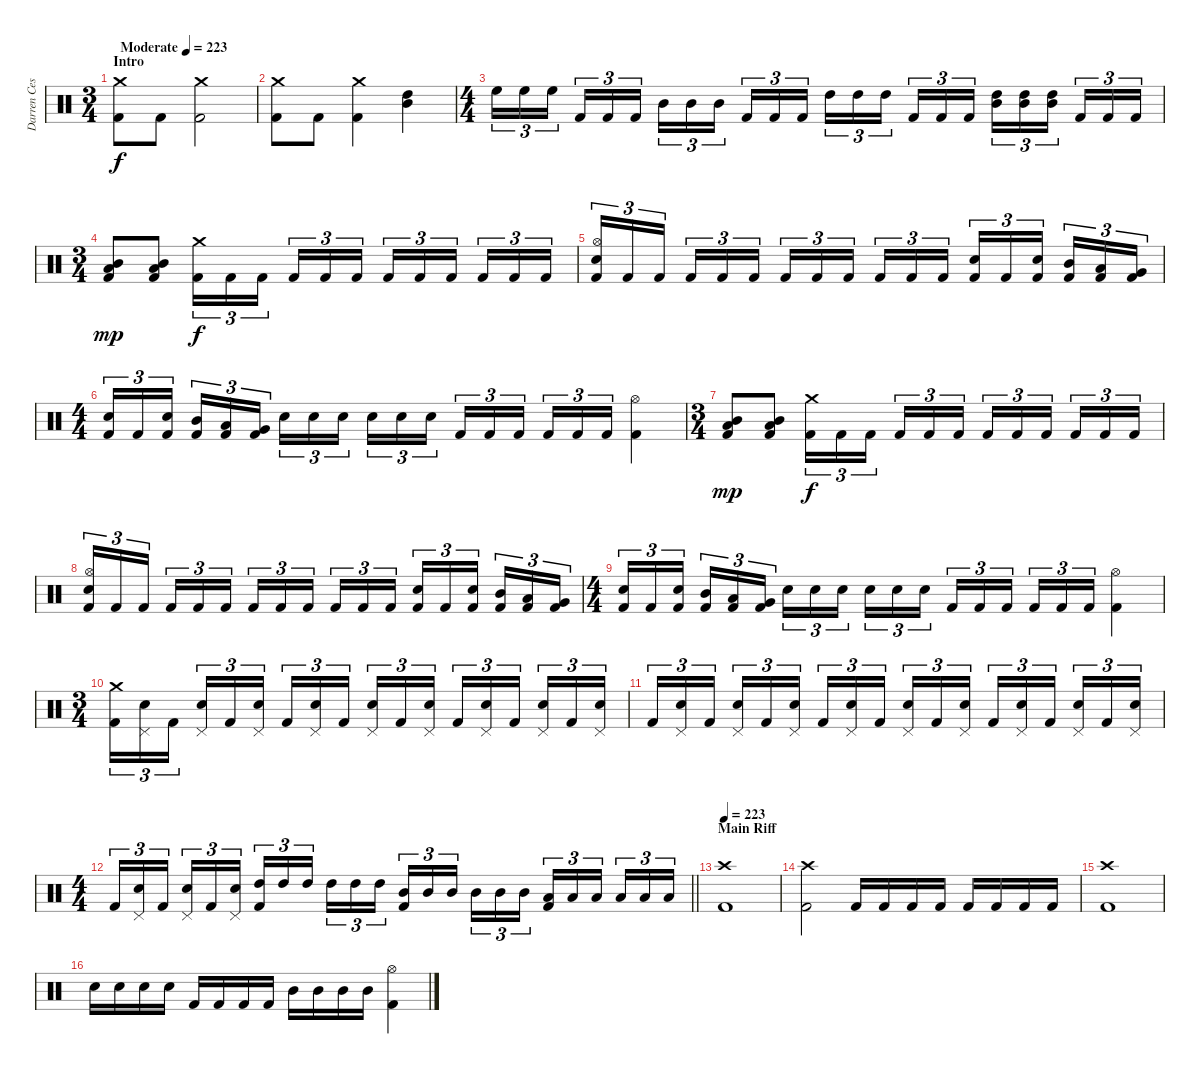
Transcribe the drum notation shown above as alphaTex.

\track ("Darren Cesca" "Darren Ces") {instrument percussion}
\staff {score}
\articulation defaults
\ts (3 4)
\section ("" "Intro")
\tempo (223 "Moderate")
\tempo 150
\tempo (223 "Moderate")
\clef neutral
\ks c
("Crash medium (hit)" "Kick (hit) 2").8{dy f} "Kick (hit) 2".8 ("Crash medium (hit)" "Kick (hit) 2").2 |
("Crash medium (hit)" "Kick (hit) 2").8 "Kick (hit) 2".8 ("Crash medium (hit)" "Kick (hit) 2").4 ("High Tom (hit)" "Mid Tom (hit)").4 |
\ts (4 4)
"High Floor Tom (hit)".16{tu (3 2)} "High Floor Tom (hit)".16{tu (3 2)} "High Floor Tom (hit)".16{tu (3 2) beam splitsecondary} "Kick (hit) 2".16{tu (3 2)} "Kick (hit) 2".16{tu (3 2)} "Kick (hit) 2".16{tu (3 2)} "Mid Tom (hit)".16{tu (3 2)} "Mid Tom (hit)".16{tu (3 2)} "Mid Tom (hit)".16{tu (3 2) beam splitsecondary} "Kick (hit) 2".16{tu (3 2)} "Kick (hit) 2".16{tu (3 2)} "Kick (hit) 2".16{tu (3 2)} "High Tom (hit)".16{tu (3 2)} "High Tom (hit)".16{tu (3 2)} "High Tom (hit)".16{tu (3 2) beam splitsecondary} "Kick (hit) 2".16{tu (3 2)} "Kick (hit) 2".16{tu (3 2)} "Kick (hit) 2".16{tu (3 2)} ("High Tom (hit)" "Mid Tom (hit)").16{tu (3 2)} ("High Tom (hit)" "Mid Tom (hit)").16{tu (3 2)} ("High Tom (hit)" "Mid Tom (hit)").16{tu (3 2) beam splitsecondary} "Kick (hit) 2".16{tu (3 2)} "Kick (hit) 2".16{tu (3 2)} "Kick (hit) 2".16{tu (3 2)} |
\ts (3 4)
("Low Tom (hit)" "Mid Tom (hit)" "Kick (hit) 2").8{dy mp} ("Low Tom (hit)" "Mid Tom (hit)" "Kick (hit) 2").8 ("Crash medium (hit)" "Kick (hit) 2").16{tu (3 2) dy f} "Kick (hit) 2".16{tu (3 2)} "Kick (hit) 2".16{tu (3 2) beam splitsecondary} "Kick (hit) 2".16{tu (3 2)} "Kick (hit) 2".16{tu (3 2)} "Kick (hit) 2".16{tu (3 2)} "Kick (hit) 2".16{tu (3 2)} "Kick (hit) 2".16{tu (3 2)} "Kick (hit) 2".16{tu (3 2) beam splitsecondary} "Kick (hit) 2".16{tu (3 2)} "Kick (hit) 2".16{tu (3 2)} "Kick (hit) 2".16{tu (3 2)} |
("Hi-Hat (open)" "Electric Snare (hit)" "Kick (hit) 2").16{tu (3 2)} "Kick (hit) 2".16{tu (3 2)} "Kick (hit) 2".16{tu (3 2) beam splitsecondary} "Kick (hit) 2".16{tu (3 2)} "Kick (hit) 2".16{tu (3 2)} "Kick (hit) 2".16{tu (3 2)} "Kick (hit) 2".16{tu (3 2)} "Kick (hit) 2".16{tu (3 2)} "Kick (hit) 2".16{tu (3 2) beam splitsecondary} "Kick (hit) 2".16{tu (3 2)} "Kick (hit) 2".16{tu (3 2)} "Kick (hit) 2".16{tu (3 2)} ("Electric Snare (hit)" "Kick (hit) 2").16{tu (3 2)} "Kick (hit) 2".16{tu (3 2)} ("Electric Snare (hit)" "Kick (hit) 2").16{tu (3 2) beam splitsecondary} ("Mid Tom (hit)" "Kick (hit) 2").16{tu (3 2)} ("Low Tom (hit)" "Kick (hit) 2").16{tu (3 2)} ("Very Low Tom (hit)" "Kick (hit) 2").16{tu (3 2)} |
\ts (4 4)
("Electric Snare (hit)" "Kick (hit) 2").16{tu (3 2)} "Kick (hit) 2".16{tu (3 2)} ("Electric Snare (hit)" "Kick (hit) 2").16{tu (3 2) beam splitsecondary} ("Mid Tom (hit)" "Kick (hit) 2").16{tu (3 2)} ("Low Tom (hit)" "Kick (hit) 2").16{tu (3 2)} ("Very Low Tom (hit)" "Kick (hit) 2").16{tu (3 2)} "Electric Snare (hit)".16{tu (3 2)} "Electric Snare (hit)".16{tu (3 2)} "Electric Snare (hit)".16{tu (3 2) beam splitsecondary} "Electric Snare (hit)".16{tu (3 2)} "Electric Snare (hit)".16{tu (3 2)} "Electric Snare (hit)".16{tu (3 2)} "Kick (hit) 2".16{tu (3 2)} "Kick (hit) 2".16{tu (3 2)} "Kick (hit) 2".16{tu (3 2) beam splitsecondary} "Kick (hit) 2".16{tu (3 2)} "Kick (hit) 2".16{tu (3 2)} "Kick (hit) 2".16{tu (3 2)} ("Hi-Hat (open)" "Kick (hit) 2").4 |
\ts (3 4)
("Low Tom (hit)" "Mid Tom (hit)" "Kick (hit) 2").8{dy mp} ("Low Tom (hit)" "Mid Tom (hit)" "Kick (hit) 2").8 ("Crash medium (hit)" "Kick (hit) 2").16{tu (3 2) dy f} "Kick (hit) 2".16{tu (3 2)} "Kick (hit) 2".16{tu (3 2) beam splitsecondary} "Kick (hit) 2".16{tu (3 2)} "Kick (hit) 2".16{tu (3 2)} "Kick (hit) 2".16{tu (3 2)} "Kick (hit) 2".16{tu (3 2)} "Kick (hit) 2".16{tu (3 2)} "Kick (hit) 2".16{tu (3 2) beam splitsecondary} "Kick (hit) 2".16{tu (3 2)} "Kick (hit) 2".16{tu (3 2)} "Kick (hit) 2".16{tu (3 2)} |
("Hi-Hat (open)" "Electric Snare (hit)" "Kick (hit) 2").16{tu (3 2)} "Kick (hit) 2".16{tu (3 2)} "Kick (hit) 2".16{tu (3 2) beam splitsecondary} "Kick (hit) 2".16{tu (3 2)} "Kick (hit) 2".16{tu (3 2)} "Kick (hit) 2".16{tu (3 2)} "Kick (hit) 2".16{tu (3 2)} "Kick (hit) 2".16{tu (3 2)} "Kick (hit) 2".16{tu (3 2) beam splitsecondary} "Kick (hit) 2".16{tu (3 2)} "Kick (hit) 2".16{tu (3 2)} "Kick (hit) 2".16{tu (3 2)} ("Electric Snare (hit)" "Kick (hit) 2").16{tu (3 2)} "Kick (hit) 2".16{tu (3 2)} ("Electric Snare (hit)" "Kick (hit) 2").16{tu (3 2) beam splitsecondary} ("Mid Tom (hit)" "Kick (hit) 2").16{tu (3 2)} ("Low Tom (hit)" "Kick (hit) 2").16{tu (3 2)} ("Very Low Tom (hit)" "Kick (hit) 2").16{tu (3 2)} |
\ts (4 4)
("Electric Snare (hit)" "Kick (hit) 2").16{tu (3 2)} "Kick (hit) 2".16{tu (3 2)} ("Electric Snare (hit)" "Kick (hit) 2").16{tu (3 2) beam splitsecondary} ("Mid Tom (hit)" "Kick (hit) 2").16{tu (3 2)} ("Low Tom (hit)" "Kick (hit) 2").16{tu (3 2)} ("Very Low Tom (hit)" "Kick (hit) 2").16{tu (3 2)} "Electric Snare (hit)".16{tu (3 2)} "Electric Snare (hit)".16{tu (3 2)} "Electric Snare (hit)".16{tu (3 2) beam splitsecondary} "Electric Snare (hit)".16{tu (3 2)} "Electric Snare (hit)".16{tu (3 2)} "Electric Snare (hit)".16{tu (3 2)} "Kick (hit) 2".16{tu (3 2)} "Kick (hit) 2".16{tu (3 2)} "Kick (hit) 2".16{tu (3 2) beam splitsecondary} "Kick (hit) 2".16{tu (3 2)} "Kick (hit) 2".16{tu (3 2)} "Kick (hit) 2".16{tu (3 2)} ("Hi-Hat (open)" "Kick (hit) 2").4 |
\ts (3 4)
("Crash medium (hit)" "Kick (hit) 2").16{tu (3 2)} ("Pedal Hi-Hat (hit)" "Electric Snare (hit)").16{tu (3 2)} "Kick (hit) 2".16{tu (3 2) beam splitsecondary} ("Pedal Hi-Hat (hit)" "Electric Snare (hit)").16{tu (3 2)} "Kick (hit) 2".16{tu (3 2)} ("Pedal Hi-Hat (hit)" "Electric Snare (hit)").16{tu (3 2)} "Kick (hit) 2".16{tu (3 2)} ("Pedal Hi-Hat (hit)" "Electric Snare (hit)").16{tu (3 2)} "Kick (hit) 2".16{tu (3 2) beam splitsecondary} ("Pedal Hi-Hat (hit)" "Electric Snare (hit)").16{tu (3 2)} "Kick (hit) 2".16{tu (3 2)} ("Pedal Hi-Hat (hit)" "Electric Snare (hit)").16{tu (3 2)} "Kick (hit) 2".16{tu (3 2)} ("Pedal Hi-Hat (hit)" "Electric Snare (hit)").16{tu (3 2)} "Kick (hit) 2".16{tu (3 2) beam splitsecondary} ("Pedal Hi-Hat (hit)" "Electric Snare (hit)").16{tu (3 2)} "Kick (hit) 2".16{tu (3 2)} ("Pedal Hi-Hat (hit)" "Electric Snare (hit)").16{tu (3 2)} |
"Kick (hit) 2".16{tu (3 2)} ("Pedal Hi-Hat (hit)" "Electric Snare (hit)").16{tu (3 2)} "Kick (hit) 2".16{tu (3 2) beam splitsecondary} ("Pedal Hi-Hat (hit)" "Electric Snare (hit)").16{tu (3 2)} "Kick (hit) 2".16{tu (3 2)} ("Pedal Hi-Hat (hit)" "Electric Snare (hit)").16{tu (3 2)} "Kick (hit) 2".16{tu (3 2)} ("Pedal Hi-Hat (hit)" "Electric Snare (hit)").16{tu (3 2)} "Kick (hit) 2".16{tu (3 2) beam splitsecondary} ("Pedal Hi-Hat (hit)" "Electric Snare (hit)").16{tu (3 2)} "Kick (hit) 2".16{tu (3 2)} ("Pedal Hi-Hat (hit)" "Electric Snare (hit)").16{tu (3 2)} "Kick (hit) 2".16{tu (3 2)} ("Pedal Hi-Hat (hit)" "Electric Snare (hit)").16{tu (3 2)} "Kick (hit) 2".16{tu (3 2) beam splitsecondary} ("Pedal Hi-Hat (hit)" "Electric Snare (hit)").16{tu (3 2)} "Kick (hit) 2".16{tu (3 2)} ("Pedal Hi-Hat (hit)" "Electric Snare (hit)").16{tu (3 2)} |
\ts (4 4)
\barLineRight lightlight "Kick (hit) 2".16{tu (3 2)}
("Pedal Hi-Hat (hit)" "Electric Snare (hit)").16{tu (3 2)} "Kick (hit) 2".16{tu (3 2) beam splitsecondary} ("Pedal Hi-Hat (hit)" "Electric Snare (hit)").16{tu (3 2)} "Kick (hit) 2".16{tu (3 2)} ("Pedal Hi-Hat (hit)" "Electric Snare (hit)").16{tu (3 2)} ("High Tom (hit)" "Kick (hit) 2").16{tu (3 2)} "High Tom (hit)".16{tu (3 2)} "High Tom (hit)".16{tu (3 2) beam splitsecondary} "High Tom (hit)".16{tu (3 2)} "High Tom (hit)".16{tu (3 2)} "High Tom (hit)".16{tu (3 2)} ("Mid Tom (hit)" "Kick (hit) 2").16{tu (3 2)} "Mid Tom (hit)".16{tu (3 2)} "Mid Tom (hit)".16{tu (3 2) beam splitsecondary} "Mid Tom (hit)".16{tu (3 2)} "Mid Tom (hit)".16{tu (3 2)} "Mid Tom (hit)".16{tu (3 2)} ("Low Tom (hit)" "Kick (hit) 2").16{tu (3 2)} "Low Tom (hit)".16{tu (3 2)} "Low Tom (hit)".16{tu (3 2) beam splitsecondary} "Low Tom (hit)".16{tu (3 2)} "Low Tom (hit)".16{tu (3 2)} "Low Tom (hit)".16{tu (3 2)} |
\section ("" "Main Riff")
\tempo 223
("Crash high (hit)" "Kick (hit) 2").1 |
("Crash high (hit)" "Kick (hit) 2").2 "Kick (hit) 2".16 "Kick (hit) 2".16 "Kick (hit) 2".16 "Kick (hit) 2".16 "Kick (hit) 2".16 "Kick (hit) 2".16 "Kick (hit) 2".16 "Kick (hit) 2".16 |
("Crash high (hit)" "Kick (hit) 2").1 |
"Electric Snare (hit)".16 "Electric Snare (hit)".16 "Electric Snare (hit)".16 "Electric Snare (hit)".16 "Kick (hit) 2".16 "Kick (hit) 2".16 "Kick (hit) 2".16 "Kick (hit) 2".16 "Mid Tom (hit)".16 "Mid Tom (hit)".16 "Mid Tom (hit)".16 "Mid Tom (hit)".16 ("Hi-Hat (open)" "Kick (hit) 2").4
